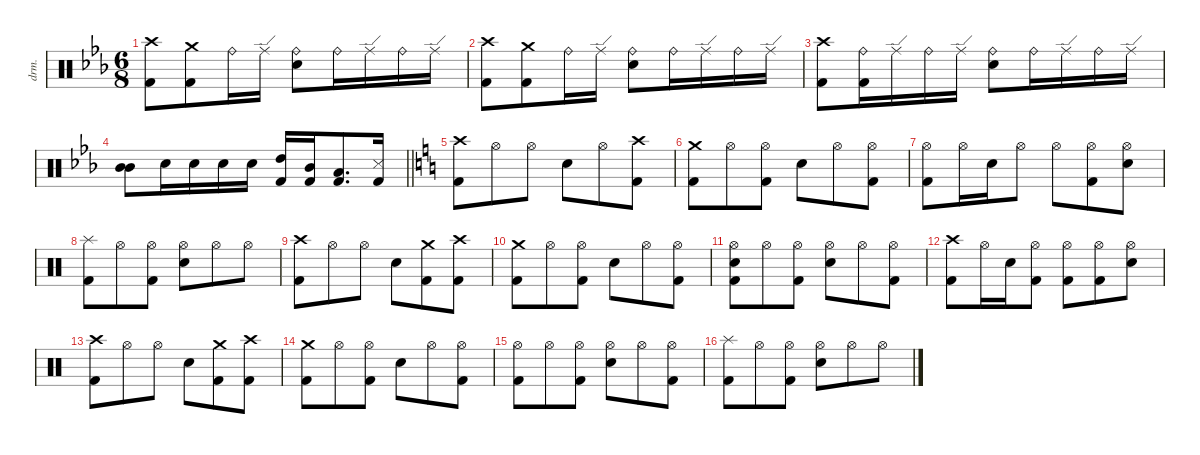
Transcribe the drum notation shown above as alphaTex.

\defaultSystemsLayout 4
\hideDynamics
\bracketExtendMode nobrackets
\otherSystemsTrackNameOrientation horizontal
\track ("Drums" "drm.") {defaultSystemsLayout 4 instrument percussion}
\staff {score}
\articulation defaults
\ts (6 8)
\tempo (93 hide)
\clef neutral
\ks cminor
("Crash high (hit)"{acc forcenatural} "Kick (hit) 2"{acc forcenatural}).8{dy fff beam Down} ("Crash medium (hit)"{acc forcenatural} "Kick (hit) 2"{acc forcenatural}).8{beam Down} "Ride (bell)"{acc forcenatural}.16{dy f beam Down} "Ride (edge)"{acc forcenatural}.16{beam Down} ("Ride (bell)"{acc forcenatural} "Snare (hit) 2"{acc forcenatural}).8{beam Down} "Ride (bell)"{acc forcenatural}.16{beam Down} "Ride (edge)"{acc forcenatural}.16{beam Down} "Ride (bell)"{acc forcenatural}.16{beam Down} "Ride (edge)"{acc forcenatural}.16{beam Down} |
("Crash high (hit)"{acc forcenatural} "Kick (hit) 2"{acc forcenatural}).8{dy fff beam Down} ("Crash medium (hit)"{acc forcenatural} "Kick (hit) 2"{acc forcenatural}).8{beam Down} "Ride (bell)"{acc forcenatural}.16{dy f beam Down} "Ride (edge)"{acc forcenatural}.16{beam Down} ("Ride (bell)"{acc forcenatural} "Snare (hit) 2"{acc forcenatural}).8{beam Down} "Ride (bell)"{acc forcenatural}.16{beam Down} "Ride (edge)"{acc forcenatural}.16{beam Down} "Ride (bell)"{acc forcenatural}.16{beam Down} "Ride (edge)"{acc forcenatural}.16{beam Down} |
("Crash high (hit)"{acc forcenatural} "Kick (hit) 2"{acc forcenatural}).8{dy fff beam Down} ("Ride (bell)"{acc forcenatural} "Kick (hit) 2"{acc forcenatural}).16{dy f beam Down} "Ride (edge)"{acc forcenatural}.16{beam Down} "Ride (bell)"{acc forcenatural}.16{beam Down} "Ride (edge)"{acc forcenatural}.16{beam Down} ("Ride (bell)"{acc forcenatural} "Snare (hit) 2"{acc forcenatural}).8{beam Down} "Ride (bell)"{acc forcenatural}.16{beam Down} "Ride (edge)"{acc forcenatural}.16{beam Down} "Ride (bell)"{acc forcenatural}.16{beam Down} "Ride (edge)"{acc forcenatural}.16{beam Down} |
\barLineRight lightlight
("Mid Tom (hit)"{acc forcenatural} "Mid Tom (hit)"{acc forcenatural}).8{dy fff beam Down} "Snare (hit) 2"{acc forcenatural}.16{dy mf beam Down} "Snare (hit) 2"{acc forcenatural}.16{dy f beam Down} "Snare (hit) 2"{acc forcenatural}.16{dy ff beam Down} "Snare (hit) 2"{acc forcenatural}.16{dy f beam Down} ("High Tom (hit)"{acc forcenatural} "Kick (hit) 2"{acc forcenatural}).16{dy fff beam Up} ("Mid Tom (hit)"{acc forcenatural} "Kick (hit) 2"{acc forcenatural}).16{beam Up} ("Low Tom (hit)"{acc forcenatural} "Kick (hit) 2"{acc forcenatural}).8{d beam Up} ("Metronome (hit)"{acc forcenatural} "Kick (hit) 2"{acc forcenatural}).16{dy f beam Up} |
\tempo (91.5 hide)
\ks aminor
("Crash high (hit)" "Kick (hit) 2").8{dy fff beam Down} "Hi-Hat (open)".8{dy f beam Down} "Hi-Hat (open)".8{beam Down} "Snare (hit) 2".8{dy ff beam Down} "Hi-Hat (open)".8{dy f beam Down} ("Crash high (hit)" "Kick (hit) 2").8{beam Down} |
("Crash medium (hit)" "Kick (hit) 2").8{dy fff beam Down} "Hi-Hat (open)".8{dy f beam Down} ("Hi-Hat (open)" "Kick (hit) 2").8{dy mf beam Down} "Snare (hit) 2".8{dy ff beam Down} "Hi-Hat (open)".8{beam Down} ("Hi-Hat (open)" "Kick (hit) 2").8{beam Down} |
\tempo (93 hide)
("Hi-Hat (open)" "Kick (hit) 2").8{beam Down} "Hi-Hat (open)".16{beam Down} "Snare (hit) 2".16{beam Down} "Hi-Hat (open)".8{beam Down} "Hi-Hat (open)".8{beam Down} ("Hi-Hat (open)" "Kick (hit) 2").8{beam Down} ("Hi-Hat (open)" "Snare (hit) 2").8{beam Down} |
("Splash (hit)" "Kick (hit) 2").8{dy fff beam Down} "Hi-Hat (open)".8{dy ff beam Down} ("Hi-Hat (open)" "Kick (hit) 2").8{beam Down} ("Hi-Hat (open)" "Snare (hit) 2").8{beam Down} "Hi-Hat (open)".8{beam Down} "Hi-Hat (open)".8{beam Down} |
\tempo (91.5 hide)
("Crash high (hit)" "Kick (hit) 2").8{dy fff beam Down} "Hi-Hat (open)".8{dy mf beam Down} "Hi-Hat (open)".8{dy f beam Down} "Snare (hit) 2".8{dy ff beam Down} ("Crash medium (hit)" "Kick (hit) 2").8{dy fff beam Down} ("Crash high (hit)" "Kick (hit) 2").8{beam Down} |
("Crash medium (hit)" "Kick (hit) 2").8{beam Down} "Hi-Hat (open)".8{dy f beam Down} ("Hi-Hat (open)" "Kick (hit) 2").8{dy mf beam Down} "Snare (hit) 2".8{dy ff beam Down} "Hi-Hat (open)".8{beam Down} ("Hi-Hat (open)" "Kick (hit) 2").8{beam Down} |
\tempo (93 hide)
("Hi-Hat (open)" "Snare (hit) 2" "Kick (hit) 2").8{beam Down} "Hi-Hat (open)".8{beam Down} ("Hi-Hat (open)" "Kick (hit) 2").8{beam Down} ("Hi-Hat (open)" "Snare (hit) 2").8{beam Down} "Hi-Hat (open)".8{beam Down} ("Hi-Hat (open)" "Kick (hit) 2").8{beam Down} |
("Crash high (hit)" "Kick (hit) 2").8{dy fff beam Down} "Hi-Hat (open)".16{dy ff beam Down} "Snare (hit) 2".16{beam Down} ("Hi-Hat (open)" "Kick (hit) 2").8{beam Down} ("Hi-Hat (open)" "Kick (hit) 2").8{beam Down} ("Hi-Hat (open)" "Kick (hit) 2").8{beam Down} ("Hi-Hat (open)" "Snare (hit) 2").8{beam Down} |
\tempo (91.5 0.00735294 hide)
("Crash high (hit)" "Kick (hit) 2").8{dy fff beam Down} "Hi-Hat (open)".8{dy mf beam Down} "Hi-Hat (open)".8{dy f beam Down} "Snare (hit) 2".8{dy ff beam Down} ("Crash medium (hit)" "Kick (hit) 2").8{dy fff beam Down} ("Crash high (hit)" "Kick (hit) 2").8{beam Down} |
("Crash medium (hit)" "Kick (hit) 2").8{beam Down} "Hi-Hat (open)".8{dy f beam Down} ("Hi-Hat (open)" "Kick (hit) 2").8{dy mf beam Down} "Snare (hit) 2".8{dy ff beam Down} "Hi-Hat (open)".8{beam Down} ("Hi-Hat (open)" "Kick (hit) 2").8{beam Down} |
\tempo (93 hide)
("Hi-Hat (open)" "Kick (hit) 2").8{beam Down} "Hi-Hat (open)".8{beam Down} ("Hi-Hat (open)" "Kick (hit) 2").8{beam Down} ("Hi-Hat (open)" "Snare (hit) 2").8{beam Down} "Hi-Hat (open)".8{beam Down} ("Hi-Hat (open)" "Kick (hit) 2").8{beam Down} |
("Splash (hit)" "Kick (hit) 2").8{dy fff beam Down} "Hi-Hat (open)".8{dy ff beam Down} ("Hi-Hat (open)" "Kick (hit) 2").8{beam Down} ("Hi-Hat (open)" "Snare (hit) 2").8{beam Down} "Hi-Hat (open)".8{beam Down} "Hi-Hat (open)".8{beam Down}
